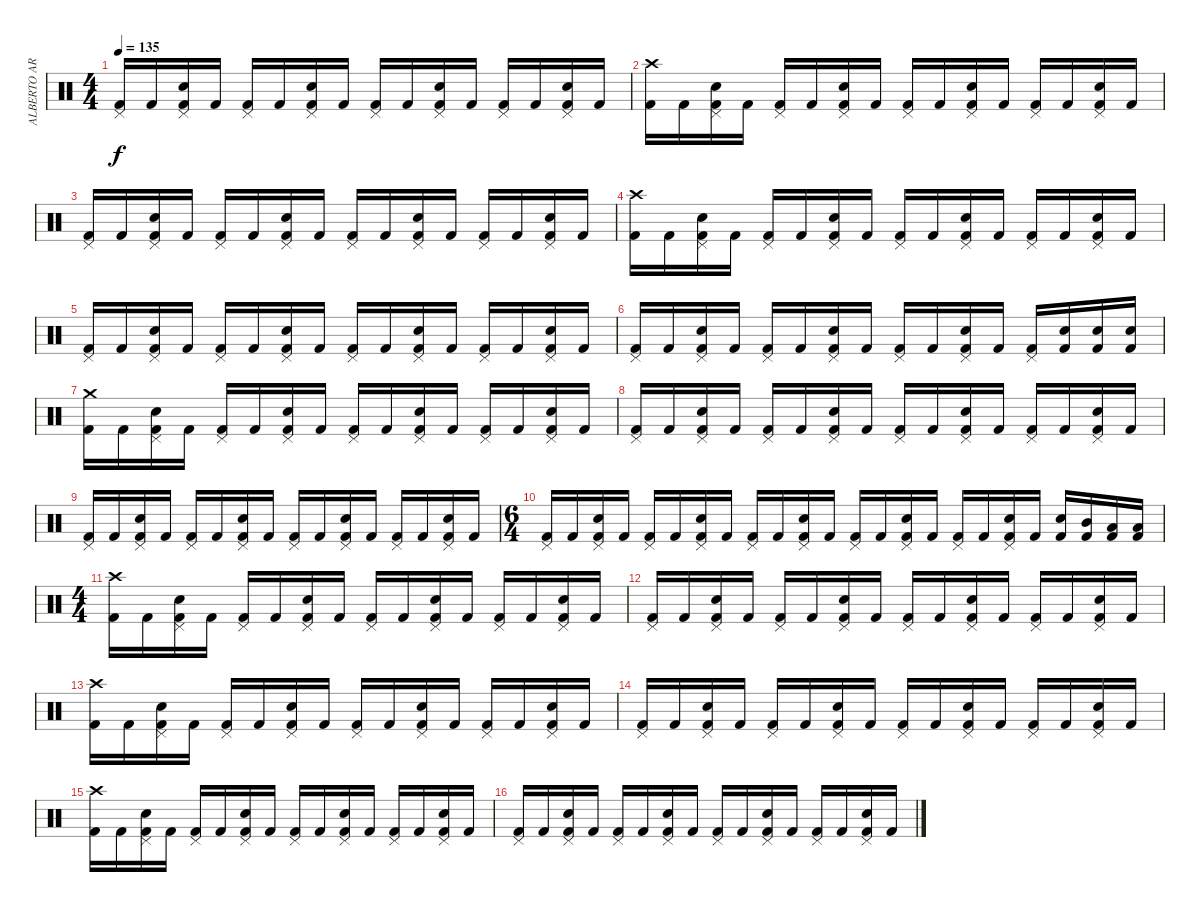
\track ("ALBERTO ARDINES" "ALBERTO AR") {instrument percussion}
\staff {score}
\articulation defaults
\ts (4 4)
\tempo 135
\clef neutral
\ks c
("Pedal Hi-Hat (hit)" "Kick (hit) 2").16{dy f} "Kick (hit) 2".16 ("Pedal Hi-Hat (hit)" "Electric Snare (hit)" "Kick (hit) 2").16 "Kick (hit) 2".16 ("Pedal Hi-Hat (hit)" "Kick (hit) 2").16 "Kick (hit) 2".16 ("Pedal Hi-Hat (hit)" "Electric Snare (hit)" "Kick (hit) 2").16 "Kick (hit) 2".16 ("Pedal Hi-Hat (hit)" "Kick (hit) 2").16 "Kick (hit) 2".16 ("Pedal Hi-Hat (hit)" "Electric Snare (hit)" "Kick (hit) 2").16 "Kick (hit) 2".16 ("Pedal Hi-Hat (hit)" "Kick (hit) 2").16 "Kick (hit) 2".16 ("Pedal Hi-Hat (hit)" "Electric Snare (hit)" "Kick (hit) 2").16 "Kick (hit) 2".16 |
("Crash high (hit)" "Kick (hit) 2").16 "Kick (hit) 2".16 ("Pedal Hi-Hat (hit)" "Electric Snare (hit)" "Kick (hit) 2").16 "Kick (hit) 2".16 ("Pedal Hi-Hat (hit)" "Kick (hit) 2").16 "Kick (hit) 2".16 ("Pedal Hi-Hat (hit)" "Electric Snare (hit)" "Kick (hit) 2").16 "Kick (hit) 2".16 ("Pedal Hi-Hat (hit)" "Kick (hit) 2").16 "Kick (hit) 2".16 ("Pedal Hi-Hat (hit)" "Electric Snare (hit)" "Kick (hit) 2").16 "Kick (hit) 2".16 ("Pedal Hi-Hat (hit)" "Kick (hit) 2").16 "Kick (hit) 2".16 ("Pedal Hi-Hat (hit)" "Electric Snare (hit)" "Kick (hit) 2").16 "Kick (hit) 2".16 |
("Pedal Hi-Hat (hit)" "Kick (hit) 2").16 "Kick (hit) 2".16 ("Pedal Hi-Hat (hit)" "Electric Snare (hit)" "Kick (hit) 2").16 "Kick (hit) 2".16 ("Pedal Hi-Hat (hit)" "Kick (hit) 2").16 "Kick (hit) 2".16 ("Pedal Hi-Hat (hit)" "Electric Snare (hit)" "Kick (hit) 2").16 "Kick (hit) 2".16 ("Pedal Hi-Hat (hit)" "Kick (hit) 2").16 "Kick (hit) 2".16 ("Pedal Hi-Hat (hit)" "Electric Snare (hit)" "Kick (hit) 2").16 "Kick (hit) 2".16 ("Pedal Hi-Hat (hit)" "Kick (hit) 2").16 "Kick (hit) 2".16 ("Pedal Hi-Hat (hit)" "Electric Snare (hit)" "Kick (hit) 2").16 "Kick (hit) 2".16 |
("Crash high (hit)" "Kick (hit) 2").16 "Kick (hit) 2".16 ("Pedal Hi-Hat (hit)" "Electric Snare (hit)" "Kick (hit) 2").16 "Kick (hit) 2".16 ("Pedal Hi-Hat (hit)" "Kick (hit) 2").16 "Kick (hit) 2".16 ("Pedal Hi-Hat (hit)" "Electric Snare (hit)" "Kick (hit) 2").16 "Kick (hit) 2".16 ("Pedal Hi-Hat (hit)" "Kick (hit) 2").16 "Kick (hit) 2".16 ("Pedal Hi-Hat (hit)" "Electric Snare (hit)" "Kick (hit) 2").16 "Kick (hit) 2".16 ("Pedal Hi-Hat (hit)" "Kick (hit) 2").16 "Kick (hit) 2".16 ("Pedal Hi-Hat (hit)" "Electric Snare (hit)" "Kick (hit) 2").16 "Kick (hit) 2".16 |
("Pedal Hi-Hat (hit)" "Kick (hit) 2").16 "Kick (hit) 2".16 ("Pedal Hi-Hat (hit)" "Electric Snare (hit)" "Kick (hit) 2").16 "Kick (hit) 2".16 ("Pedal Hi-Hat (hit)" "Kick (hit) 2").16 "Kick (hit) 2".16 ("Pedal Hi-Hat (hit)" "Electric Snare (hit)" "Kick (hit) 2").16 "Kick (hit) 2".16 ("Pedal Hi-Hat (hit)" "Kick (hit) 2").16 "Kick (hit) 2".16 ("Pedal Hi-Hat (hit)" "Electric Snare (hit)" "Kick (hit) 2").16 "Kick (hit) 2".16 ("Pedal Hi-Hat (hit)" "Kick (hit) 2").16 "Kick (hit) 2".16 ("Pedal Hi-Hat (hit)" "Electric Snare (hit)" "Kick (hit) 2").16 "Kick (hit) 2".16 |
("Pedal Hi-Hat (hit)" "Kick (hit) 2").16 "Kick (hit) 2".16 ("Pedal Hi-Hat (hit)" "Electric Snare (hit)" "Kick (hit) 2").16 "Kick (hit) 2".16 ("Pedal Hi-Hat (hit)" "Kick (hit) 2").16 "Kick (hit) 2".16 ("Pedal Hi-Hat (hit)" "Electric Snare (hit)" "Kick (hit) 2").16 "Kick (hit) 2".16 ("Pedal Hi-Hat (hit)" "Kick (hit) 2").16 "Kick (hit) 2".16 ("Pedal Hi-Hat (hit)" "Electric Snare (hit)" "Kick (hit) 2").16 "Kick (hit) 2".16 ("Pedal Hi-Hat (hit)" "Kick (hit) 2").16 ("Electric Snare (hit)" "Kick (hit) 2").16 ("Electric Snare (hit)" "Kick (hit) 2").16 ("Electric Snare (hit)" "Kick (hit) 2").16 |
("Crash medium (hit)" "Kick (hit) 2").16 "Kick (hit) 2".16 ("Pedal Hi-Hat (hit)" "Electric Snare (hit)" "Kick (hit) 2").16 "Kick (hit) 2".16 ("Pedal Hi-Hat (hit)" "Kick (hit) 2").16 "Kick (hit) 2".16 ("Pedal Hi-Hat (hit)" "Electric Snare (hit)" "Kick (hit) 2").16 "Kick (hit) 2".16 ("Pedal Hi-Hat (hit)" "Kick (hit) 2").16 "Kick (hit) 2".16 ("Pedal Hi-Hat (hit)" "Electric Snare (hit)" "Kick (hit) 2").16 "Kick (hit) 2".16 ("Pedal Hi-Hat (hit)" "Kick (hit) 2").16 "Kick (hit) 2".16 ("Pedal Hi-Hat (hit)" "Electric Snare (hit)" "Kick (hit) 2").16 "Kick (hit) 2".16 |
("Pedal Hi-Hat (hit)" "Kick (hit) 2").16 "Kick (hit) 2".16 ("Pedal Hi-Hat (hit)" "Electric Snare (hit)" "Kick (hit) 2").16 "Kick (hit) 2".16 ("Pedal Hi-Hat (hit)" "Kick (hit) 2").16 "Kick (hit) 2".16 ("Pedal Hi-Hat (hit)" "Electric Snare (hit)" "Kick (hit) 2").16 "Kick (hit) 2".16 ("Pedal Hi-Hat (hit)" "Kick (hit) 2").16 "Kick (hit) 2".16 ("Pedal Hi-Hat (hit)" "Electric Snare (hit)" "Kick (hit) 2").16 "Kick (hit) 2".16 ("Pedal Hi-Hat (hit)" "Kick (hit) 2").16 "Kick (hit) 2".16 ("Pedal Hi-Hat (hit)" "Electric Snare (hit)" "Kick (hit) 2").16 "Kick (hit) 2".16 |
("Pedal Hi-Hat (hit)" "Kick (hit) 2").16 "Kick (hit) 2".16 ("Pedal Hi-Hat (hit)" "Electric Snare (hit)" "Kick (hit) 2").16 "Kick (hit) 2".16 ("Pedal Hi-Hat (hit)" "Kick (hit) 2").16 "Kick (hit) 2".16 ("Pedal Hi-Hat (hit)" "Electric Snare (hit)" "Kick (hit) 2").16 "Kick (hit) 2".16 ("Pedal Hi-Hat (hit)" "Kick (hit) 2").16 "Kick (hit) 2".16 ("Pedal Hi-Hat (hit)" "Electric Snare (hit)" "Kick (hit) 2").16 "Kick (hit) 2".16 ("Pedal Hi-Hat (hit)" "Kick (hit) 2").16 "Kick (hit) 2".16 ("Pedal Hi-Hat (hit)" "Electric Snare (hit)" "Kick (hit) 2").16 "Kick (hit) 2".16 |
\ts (6 4)
("Pedal Hi-Hat (hit)" "Kick (hit) 2").16 "Kick (hit) 2".16 ("Pedal Hi-Hat (hit)" "Electric Snare (hit)" "Kick (hit) 2").16 "Kick (hit) 2".16 ("Pedal Hi-Hat (hit)" "Kick (hit) 2").16 "Kick (hit) 2".16 ("Pedal Hi-Hat (hit)" "Electric Snare (hit)" "Kick (hit) 2").16 "Kick (hit) 2".16 ("Pedal Hi-Hat (hit)" "Kick (hit) 2").16 "Kick (hit) 2".16 ("Pedal Hi-Hat (hit)" "Electric Snare (hit)" "Kick (hit) 2").16 "Kick (hit) 2".16 ("Pedal Hi-Hat (hit)" "Kick (hit) 2").16 "Kick (hit) 2".16 ("Pedal Hi-Hat (hit)" "Electric Snare (hit)" "Kick (hit) 2").16 "Kick (hit) 2".16 ("Pedal Hi-Hat (hit)" "Kick (hit) 2").16 "Kick (hit) 2".16 ("Pedal Hi-Hat (hit)" "Electric Snare (hit)" "Kick (hit) 2").16 "Kick (hit) 2".16 ("Electric Snare (hit)" "Kick (hit) 2").16 ("Mid Tom (hit)" "Kick (hit) 2").16 ("Low Tom (hit)" "Kick (hit) 2").16 ("Low Tom (hit)" "Kick (hit) 2").16 |
\ts (4 4)
("Crash high (hit)" "Kick (hit) 2").16 "Kick (hit) 2".16 ("Pedal Hi-Hat (hit)" "Electric Snare (hit)" "Kick (hit) 2").16 "Kick (hit) 2".16 ("Pedal Hi-Hat (hit)" "Kick (hit) 2").16 "Kick (hit) 2".16 ("Pedal Hi-Hat (hit)" "Electric Snare (hit)" "Kick (hit) 2").16 "Kick (hit) 2".16 ("Pedal Hi-Hat (hit)" "Kick (hit) 2").16 "Kick (hit) 2".16 ("Pedal Hi-Hat (hit)" "Electric Snare (hit)" "Kick (hit) 2").16 "Kick (hit) 2".16 ("Pedal Hi-Hat (hit)" "Kick (hit) 2").16 "Kick (hit) 2".16 ("Pedal Hi-Hat (hit)" "Electric Snare (hit)" "Kick (hit) 2").16 "Kick (hit) 2".16 |
("Pedal Hi-Hat (hit)" "Kick (hit) 2").16 "Kick (hit) 2".16 ("Pedal Hi-Hat (hit)" "Electric Snare (hit)" "Kick (hit) 2").16 "Kick (hit) 2".16 ("Pedal Hi-Hat (hit)" "Kick (hit) 2").16 "Kick (hit) 2".16 ("Pedal Hi-Hat (hit)" "Electric Snare (hit)" "Kick (hit) 2").16 "Kick (hit) 2".16 ("Pedal Hi-Hat (hit)" "Kick (hit) 2").16 "Kick (hit) 2".16 ("Pedal Hi-Hat (hit)" "Electric Snare (hit)" "Kick (hit) 2").16 "Kick (hit) 2".16 ("Pedal Hi-Hat (hit)" "Kick (hit) 2").16 "Kick (hit) 2".16 ("Pedal Hi-Hat (hit)" "Electric Snare (hit)" "Kick (hit) 2").16 "Kick (hit) 2".16 |
("Crash high (hit)" "Kick (hit) 2").16 "Kick (hit) 2".16 ("Pedal Hi-Hat (hit)" "Electric Snare (hit)" "Kick (hit) 2").16 "Kick (hit) 2".16 ("Pedal Hi-Hat (hit)" "Kick (hit) 2").16 "Kick (hit) 2".16 ("Pedal Hi-Hat (hit)" "Electric Snare (hit)" "Kick (hit) 2").16 "Kick (hit) 2".16 ("Pedal Hi-Hat (hit)" "Kick (hit) 2").16 "Kick (hit) 2".16 ("Pedal Hi-Hat (hit)" "Electric Snare (hit)" "Kick (hit) 2").16 "Kick (hit) 2".16 ("Pedal Hi-Hat (hit)" "Kick (hit) 2").16 "Kick (hit) 2".16 ("Pedal Hi-Hat (hit)" "Electric Snare (hit)" "Kick (hit) 2").16 "Kick (hit) 2".16 |
("Pedal Hi-Hat (hit)" "Kick (hit) 2").16 "Kick (hit) 2".16 ("Pedal Hi-Hat (hit)" "Electric Snare (hit)" "Kick (hit) 2").16 "Kick (hit) 2".16 ("Pedal Hi-Hat (hit)" "Kick (hit) 2").16 "Kick (hit) 2".16 ("Pedal Hi-Hat (hit)" "Electric Snare (hit)" "Kick (hit) 2").16 "Kick (hit) 2".16 ("Pedal Hi-Hat (hit)" "Kick (hit) 2").16 "Kick (hit) 2".16 ("Pedal Hi-Hat (hit)" "Electric Snare (hit)" "Kick (hit) 2").16 "Kick (hit) 2".16 ("Pedal Hi-Hat (hit)" "Kick (hit) 2").16 "Kick (hit) 2".16 ("Pedal Hi-Hat (hit)" "Electric Snare (hit)" "Kick (hit) 2").16 "Kick (hit) 2".16 |
("Crash high (hit)" "Kick (hit) 2").16 "Kick (hit) 2".16 ("Pedal Hi-Hat (hit)" "Electric Snare (hit)" "Kick (hit) 2").16 "Kick (hit) 2".16 ("Pedal Hi-Hat (hit)" "Kick (hit) 2").16 "Kick (hit) 2".16 ("Pedal Hi-Hat (hit)" "Electric Snare (hit)" "Kick (hit) 2").16 "Kick (hit) 2".16 ("Pedal Hi-Hat (hit)" "Kick (hit) 2").16 "Kick (hit) 2".16 ("Pedal Hi-Hat (hit)" "Electric Snare (hit)" "Kick (hit) 2").16 "Kick (hit) 2".16 ("Pedal Hi-Hat (hit)" "Kick (hit) 2").16 "Kick (hit) 2".16 ("Pedal Hi-Hat (hit)" "Electric Snare (hit)" "Kick (hit) 2").16 "Kick (hit) 2".16 |
("Pedal Hi-Hat (hit)" "Kick (hit) 2").16 "Kick (hit) 2".16 ("Pedal Hi-Hat (hit)" "Electric Snare (hit)" "Kick (hit) 2").16 "Kick (hit) 2".16 ("Pedal Hi-Hat (hit)" "Kick (hit) 2").16 "Kick (hit) 2".16 ("Pedal Hi-Hat (hit)" "Electric Snare (hit)" "Kick (hit) 2").16 "Kick (hit) 2".16 ("Pedal Hi-Hat (hit)" "Kick (hit) 2").16 "Kick (hit) 2".16 ("Pedal Hi-Hat (hit)" "Electric Snare (hit)" "Kick (hit) 2").16 "Kick (hit) 2".16 ("Pedal Hi-Hat (hit)" "Kick (hit) 2").16 "Kick (hit) 2".16 ("Pedal Hi-Hat (hit)" "Electric Snare (hit)" "Kick (hit) 2").16 "Kick (hit) 2".16
